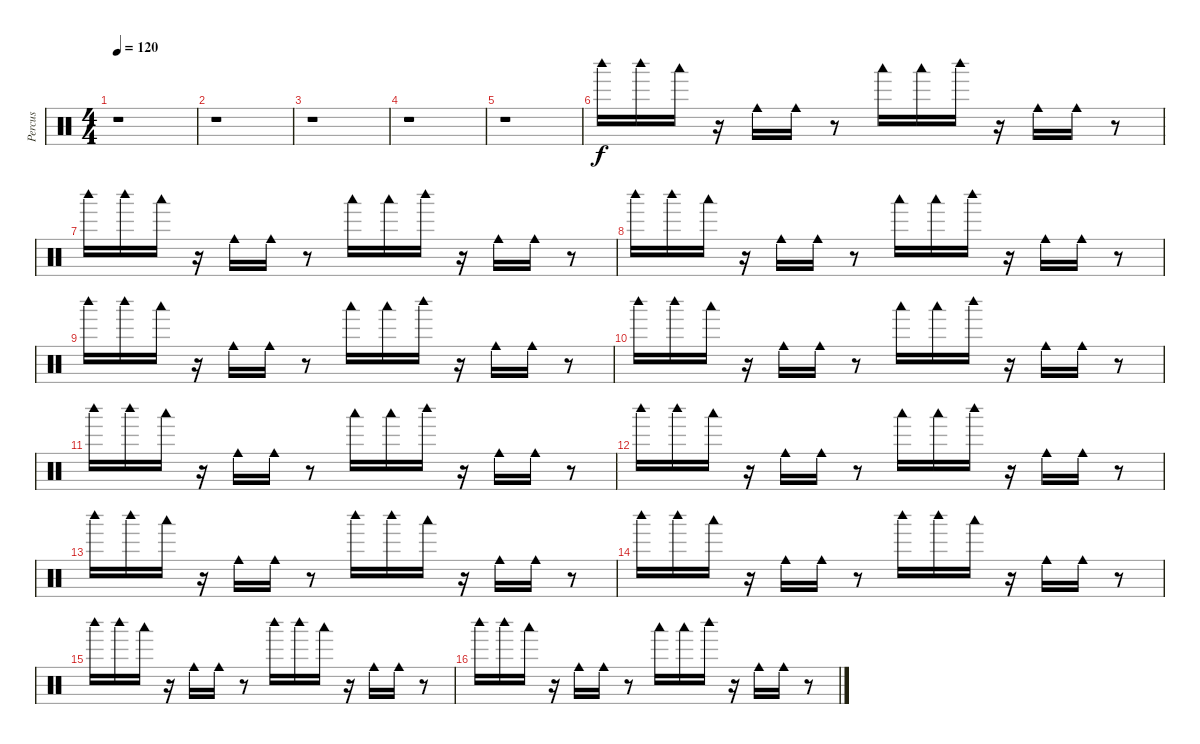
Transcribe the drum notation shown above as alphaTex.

\track ("Percus" "Percus") {instrument percussion}
\staff {score}
\articulation defaults
\ts (4 4)
\tempo 120
\clef neutral
\ks c
r.1{dy f} |
r.1 |
r.1 |
r.1 |
r.1 |
"Woodblock high (hit)".16 "Woodblock high (hit)".16 "Woodblock low (hit)".16 r.16 "Cowbell medium (hit)".16 "Cowbell medium (hit)".16 r.8 "Woodblock low (hit)".16 "Woodblock low (hit)".16 "Woodblock high (hit)".16 r.16 "Cowbell medium (hit)".16 "Cowbell medium (hit)".16 r.8 |
"Woodblock high (hit)".16 "Woodblock high (hit)".16 "Woodblock low (hit)".16 r.16 "Cowbell medium (hit)".16 "Cowbell medium (hit)".16 r.8 "Woodblock low (hit)".16 "Woodblock low (hit)".16 "Woodblock high (hit)".16 r.16 "Cowbell medium (hit)".16 "Cowbell medium (hit)".16 r.8 |
"Woodblock high (hit)".16 "Woodblock high (hit)".16 "Woodblock low (hit)".16 r.16 "Cowbell medium (hit)".16 "Cowbell medium (hit)".16 r.8 "Woodblock low (hit)".16 "Woodblock low (hit)".16 "Woodblock high (hit)".16 r.16 "Cowbell medium (hit)".16 "Cowbell medium (hit)".16 r.8 |
"Woodblock high (hit)".16 "Woodblock high (hit)".16 "Woodblock low (hit)".16 r.16 "Cowbell medium (hit)".16 "Cowbell medium (hit)".16 r.8 "Woodblock low (hit)".16 "Woodblock low (hit)".16 "Woodblock high (hit)".16 r.16 "Cowbell medium (hit)".16 "Cowbell medium (hit)".16 r.8 |
"Woodblock high (hit)".16 "Woodblock high (hit)".16 "Woodblock low (hit)".16 r.16 "Cowbell medium (hit)".16 "Cowbell medium (hit)".16 r.8 "Woodblock low (hit)".16 "Woodblock low (hit)".16 "Woodblock high (hit)".16 r.16 "Cowbell medium (hit)".16 "Cowbell medium (hit)".16 r.8 |
"Woodblock high (hit)".16 "Woodblock high (hit)".16 "Woodblock low (hit)".16 r.16 "Cowbell medium (hit)".16 "Cowbell medium (hit)".16 r.8 "Woodblock low (hit)".16 "Woodblock low (hit)".16 "Woodblock high (hit)".16 r.16 "Cowbell medium (hit)".16 "Cowbell medium (hit)".16 r.8 |
"Woodblock high (hit)".16 "Woodblock high (hit)".16 "Woodblock low (hit)".16 r.16 "Cowbell medium (hit)".16 "Cowbell medium (hit)".16 r.8 "Woodblock low (hit)".16 "Woodblock low (hit)".16 "Woodblock high (hit)".16 r.16 "Cowbell medium (hit)".16 "Cowbell medium (hit)".16 r.8 |
"Woodblock high (hit)".16 "Woodblock high (hit)".16 "Woodblock low (hit)".16 r.16 "Cowbell medium (hit)".16 "Cowbell medium (hit)".16 r.8 "Woodblock high (hit)".16 "Woodblock high (hit)".16 "Woodblock low (hit)".16 r.16 "Cowbell medium (hit)".16 "Cowbell medium (hit)".16 r.8 |
"Woodblock high (hit)".16 "Woodblock high (hit)".16 "Woodblock low (hit)".16 r.16 "Cowbell medium (hit)".16 "Cowbell medium (hit)".16 r.8 "Woodblock high (hit)".16 "Woodblock high (hit)".16 "Woodblock low (hit)".16 r.16 "Cowbell medium (hit)".16 "Cowbell medium (hit)".16 r.8 |
"Woodblock high (hit)".16 "Woodblock high (hit)".16 "Woodblock low (hit)".16 r.16 "Cowbell medium (hit)".16 "Cowbell medium (hit)".16 r.8 "Woodblock high (hit)".16 "Woodblock high (hit)".16 "Woodblock low (hit)".16 r.16 "Cowbell medium (hit)".16 "Cowbell medium (hit)".16 r.8 |
"Woodblock high (hit)".16 "Woodblock high (hit)".16 "Woodblock low (hit)".16 r.16 "Cowbell medium (hit)".16 "Cowbell medium (hit)".16 r.8 "Woodblock low (hit)".16 "Woodblock low (hit)".16 "Woodblock high (hit)".16 r.16 "Cowbell medium (hit)".16 "Cowbell medium (hit)".16 r.8
